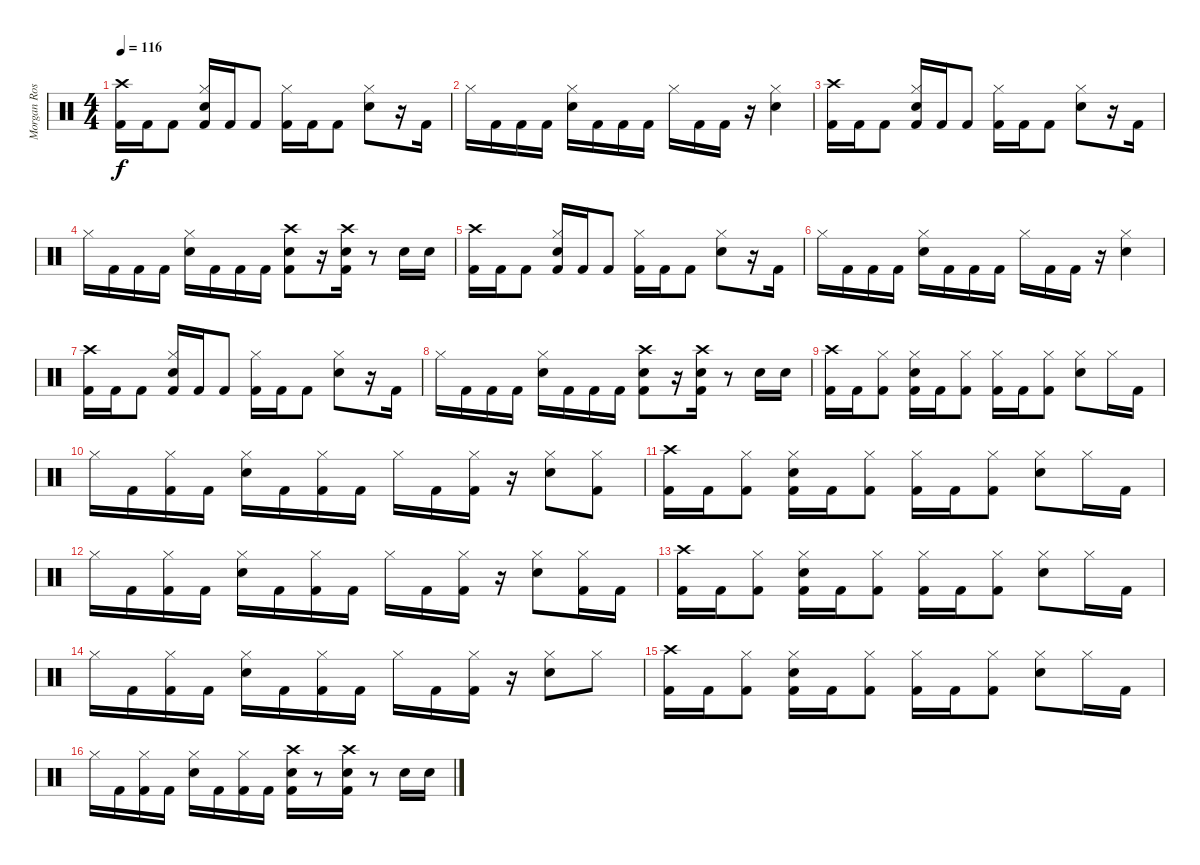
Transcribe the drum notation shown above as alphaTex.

\track ("Morgan Rose - Drums" "Morgan Ros") {instrument percussion}
\staff {score}
\articulation defaults
\ts (4 4)
\tempo 116
\clef neutral
\ks c
("Crash high (hit)" "Kick (hit) 2").16{dy f} "Kick (hit) 2".16 "Kick (hit) 2".8 ("Hi-Hat (closed)" "Electric Snare (hit)" "Kick (hit) 2").16 "Kick (hit) 2".16 "Kick (hit) 2".8 ("Hi-Hat (closed)" "Kick (hit) 2").16 "Kick (hit) 2".16 "Kick (hit) 2".8 ("Hi-Hat (closed)" "Electric Snare (hit)").8 r.16 "Kick (hit) 2".16 |
"Hi-Hat (closed)".16 "Kick (hit) 2".16 "Kick (hit) 2".16 "Kick (hit) 2".16 ("Hi-Hat (closed)" "Electric Snare (hit)").16 "Kick (hit) 2".16 "Kick (hit) 2".16 "Kick (hit) 2".16 "Hi-Hat (closed)".16 "Kick (hit) 2".16 "Kick (hit) 2".16 r.16 ("Hi-Hat (closed)" "Electric Snare (hit)").4 |
("Crash high (hit)" "Kick (hit) 2").16 "Kick (hit) 2".16 "Kick (hit) 2".8 ("Hi-Hat (closed)" "Electric Snare (hit)" "Kick (hit) 2").16 "Kick (hit) 2".16 "Kick (hit) 2".8 ("Hi-Hat (closed)" "Kick (hit) 2").16 "Kick (hit) 2".16 "Kick (hit) 2".8 ("Hi-Hat (closed)" "Electric Snare (hit)").8 r.16 "Kick (hit) 2".16 |
"Hi-Hat (closed)".16 "Kick (hit) 2".16 "Kick (hit) 2".16 "Kick (hit) 2".16 ("Hi-Hat (closed)" "Electric Snare (hit)").16 "Kick (hit) 2".16 "Kick (hit) 2".16 "Kick (hit) 2".16 ("Crash high (hit)" "Electric Snare (hit)" "Kick (hit) 2").8 r.16 ("Crash high (hit)" "Electric Snare (hit)" "Kick (hit) 2").16 r.8 "Electric Snare (hit)".16 "Electric Snare (hit)".16 |
("Crash high (hit)" "Kick (hit) 2").16 "Kick (hit) 2".16 "Kick (hit) 2".8 ("Hi-Hat (closed)" "Electric Snare (hit)" "Kick (hit) 2").16 "Kick (hit) 2".16 "Kick (hit) 2".8 ("Hi-Hat (closed)" "Kick (hit) 2").16 "Kick (hit) 2".16 "Kick (hit) 2".8 ("Hi-Hat (closed)" "Electric Snare (hit)").8 r.16 "Kick (hit) 2".16 |
"Hi-Hat (closed)".16 "Kick (hit) 2".16 "Kick (hit) 2".16 "Kick (hit) 2".16 ("Hi-Hat (closed)" "Electric Snare (hit)").16 "Kick (hit) 2".16 "Kick (hit) 2".16 "Kick (hit) 2".16 "Hi-Hat (closed)".16 "Kick (hit) 2".16 "Kick (hit) 2".16 r.16 ("Hi-Hat (closed)" "Electric Snare (hit)").4 |
("Crash high (hit)" "Kick (hit) 2").16 "Kick (hit) 2".16 "Kick (hit) 2".8 ("Hi-Hat (closed)" "Electric Snare (hit)" "Kick (hit) 2").16 "Kick (hit) 2".16 "Kick (hit) 2".8 ("Hi-Hat (closed)" "Kick (hit) 2").16 "Kick (hit) 2".16 "Kick (hit) 2".8 ("Hi-Hat (closed)" "Electric Snare (hit)").8 r.16 "Kick (hit) 2".16 |
"Hi-Hat (closed)".16 "Kick (hit) 2".16 "Kick (hit) 2".16 "Kick (hit) 2".16 ("Hi-Hat (closed)" "Electric Snare (hit)").16 "Kick (hit) 2".16 "Kick (hit) 2".16 "Kick (hit) 2".16 ("Crash high (hit)" "Electric Snare (hit)" "Kick (hit) 2").8 r.16 ("Crash high (hit)" "Electric Snare (hit)" "Kick (hit) 2").16 r.8 "Electric Snare (hit)".16 "Electric Snare (hit)".16 |
("Crash high (hit)" "Kick (hit) 2").16 "Kick (hit) 2".16 ("Hi-Hat (closed)" "Kick (hit) 2").8 ("Hi-Hat (closed)" "Electric Snare (hit)" "Kick (hit) 2").16 "Kick (hit) 2".16 ("Hi-Hat (closed)" "Kick (hit) 2").8 ("Hi-Hat (closed)" "Kick (hit) 2").16 "Kick (hit) 2".16 ("Hi-Hat (closed)" "Kick (hit) 2").8 ("Hi-Hat (closed)" "Electric Snare (hit)").8 "Hi-Hat (closed)".16 "Kick (hit) 2".16 |
"Hi-Hat (closed)".16 "Kick (hit) 2".16 ("Hi-Hat (closed)" "Kick (hit) 2").16 "Kick (hit) 2".16 ("Hi-Hat (closed)" "Electric Snare (hit)").16 "Kick (hit) 2".16 ("Hi-Hat (closed)" "Kick (hit) 2").16 "Kick (hit) 2".16 "Hi-Hat (closed)".16 "Kick (hit) 2".16 ("Hi-Hat (closed)" "Kick (hit) 2").16 r.16 ("Hi-Hat (closed)" "Electric Snare (hit)").8 ("Hi-Hat (closed)" "Kick (hit) 2").8 |
("Crash high (hit)" "Kick (hit) 2").16 "Kick (hit) 2".16 ("Hi-Hat (closed)" "Kick (hit) 2").8 ("Hi-Hat (closed)" "Electric Snare (hit)" "Kick (hit) 2").16 "Kick (hit) 2".16 ("Hi-Hat (closed)" "Kick (hit) 2").8 ("Hi-Hat (closed)" "Kick (hit) 2").16 "Kick (hit) 2".16 ("Hi-Hat (closed)" "Kick (hit) 2").8 ("Hi-Hat (closed)" "Electric Snare (hit)").8 "Hi-Hat (closed)".16 "Kick (hit) 2".16 |
"Hi-Hat (closed)".16 "Kick (hit) 2".16 ("Hi-Hat (closed)" "Kick (hit) 2").16 "Kick (hit) 2".16 ("Hi-Hat (closed)" "Electric Snare (hit)").16 "Kick (hit) 2".16 ("Hi-Hat (closed)" "Kick (hit) 2").16 "Kick (hit) 2".16 "Hi-Hat (closed)".16 "Kick (hit) 2".16 ("Hi-Hat (closed)" "Kick (hit) 2").16 r.16 ("Hi-Hat (closed)" "Electric Snare (hit)").8 ("Hi-Hat (closed)" "Kick (hit) 2").16 "Kick (hit) 2".16 |
("Crash high (hit)" "Kick (hit) 2").16 "Kick (hit) 2".16 ("Hi-Hat (closed)" "Kick (hit) 2").8 ("Hi-Hat (closed)" "Electric Snare (hit)" "Kick (hit) 2").16 "Kick (hit) 2".16 ("Hi-Hat (closed)" "Kick (hit) 2").8 ("Hi-Hat (closed)" "Kick (hit) 2").16 "Kick (hit) 2".16 ("Hi-Hat (closed)" "Kick (hit) 2").8 ("Hi-Hat (closed)" "Electric Snare (hit)").8 "Hi-Hat (closed)".16 "Kick (hit) 2".16 |
"Hi-Hat (closed)".16 "Kick (hit) 2".16 ("Hi-Hat (closed)" "Kick (hit) 2").16 "Kick (hit) 2".16 ("Hi-Hat (closed)" "Electric Snare (hit)").16 "Kick (hit) 2".16 ("Hi-Hat (closed)" "Kick (hit) 2").16 "Kick (hit) 2".16 "Hi-Hat (closed)".16 "Kick (hit) 2".16 ("Hi-Hat (closed)" "Kick (hit) 2").16 r.16 ("Hi-Hat (closed)" "Electric Snare (hit)").8 "Hi-Hat (closed)".8 |
("Crash high (hit)" "Kick (hit) 2").16 "Kick (hit) 2".16 ("Hi-Hat (closed)" "Kick (hit) 2").8 ("Hi-Hat (closed)" "Electric Snare (hit)" "Kick (hit) 2").16 "Kick (hit) 2".16 ("Hi-Hat (closed)" "Kick (hit) 2").8 ("Hi-Hat (closed)" "Kick (hit) 2").16 "Kick (hit) 2".16 ("Hi-Hat (closed)" "Kick (hit) 2").8 ("Hi-Hat (closed)" "Electric Snare (hit)").8 "Hi-Hat (closed)".16 "Kick (hit) 2".16 |
"Hi-Hat (closed)".16 "Kick (hit) 2".16 ("Hi-Hat (closed)" "Kick (hit) 2").16 "Kick (hit) 2".16 ("Hi-Hat (closed)" "Electric Snare (hit)").16 "Kick (hit) 2".16 ("Hi-Hat (closed)" "Kick (hit) 2").16 "Kick (hit) 2".16 ("Crash high (hit)" "Electric Snare (hit)" "Kick (hit) 2").16 r.8 ("Crash high (hit)" "Electric Snare (hit)" "Kick (hit) 2").16 r.8 "Electric Snare (hit)".16 "Electric Snare (hit)".16
